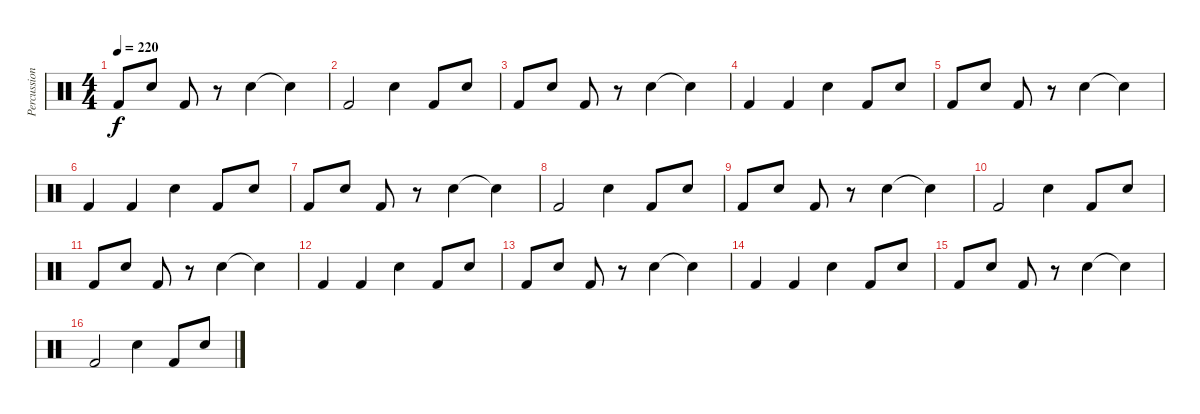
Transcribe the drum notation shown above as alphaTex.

\track ("Percussions" "Percussion") {instrument percussion}
\staff {score}
\articulation defaults
\ts (4 4)
\tempo 220
\clef neutral
\ks c "Kick (hit) 2".8{dy f} "Electric Snare (hit)".8 "Kick (hit) 2".8
r.8 "Electric Snare (hit)".4 "Electric Snare (hit)"{t}.4 |
"Kick (hit) 2".2 "Electric Snare (hit)".4 "Kick (hit) 2".8 "Electric Snare (hit)".8 |
"Kick (hit) 2".8 "Electric Snare (hit)".8 "Kick (hit) 2".8 r.8 "Electric Snare (hit)".4 "Snare (hit)"{t}.4 |
"Kick (hit) 2".4 "Kick (hit) 2".4 "Electric Snare (hit)".4 "Kick (hit) 2".8 "Electric Snare (hit)".8 |
"Kick (hit) 2".8 "Electric Snare (hit)".8 "Kick (hit) 2".8 r.8 "Electric Snare (hit)".4 "Electric Snare (hit)"{t}.4 |
"Kick (hit) 2".4 "Kick (hit) 2".4 "Electric Snare (hit)".4 "Kick (hit) 2".8 "Electric Snare (hit)".8 |
"Kick (hit) 2".8 "Electric Snare (hit)".8 "Kick (hit) 2".8 r.8 "Electric Snare (hit)".4 "Electric Snare (hit)"{t}.4 |
"Kick (hit) 2".2 "Electric Snare (hit)".4 "Kick (hit) 2".8 "Electric Snare (hit)".8 |
"Kick (hit) 2".8 "Electric Snare (hit)".8 "Kick (hit) 2".8 r.8 "Electric Snare (hit)".4 "Snare (hit)"{t}.4 |
"Kick (hit) 2".2 "Electric Snare (hit)".4 "Kick (hit) 2".8 "Electric Snare (hit)".8 |
"Kick (hit) 2".8 "Electric Snare (hit)".8 "Kick (hit) 2".8 r.8 "Electric Snare (hit)".4 "Snare (hit)"{t}.4 |
"Kick (hit) 2".4 "Kick (hit) 2".4 "Electric Snare (hit)".4 "Kick (hit) 2".8 "Electric Snare (hit)".8 |
"Kick (hit) 2".8 "Electric Snare (hit)".8 "Kick (hit) 2".8 r.8 "Electric Snare (hit)".4 "Electric Snare (hit)"{t}.4 |
"Kick (hit) 2".4 "Kick (hit) 2".4 "Electric Snare (hit)".4 "Kick (hit) 2".8 "Electric Snare (hit)".8 |
"Kick (hit) 2".8 "Electric Snare (hit)".8 "Kick (hit) 2".8 r.8 "Electric Snare (hit)".4 "Electric Snare (hit)"{t}.4 |
"Kick (hit) 2".2 "Electric Snare (hit)".4 "Kick (hit) 2".8 "Electric Snare (hit)".8
